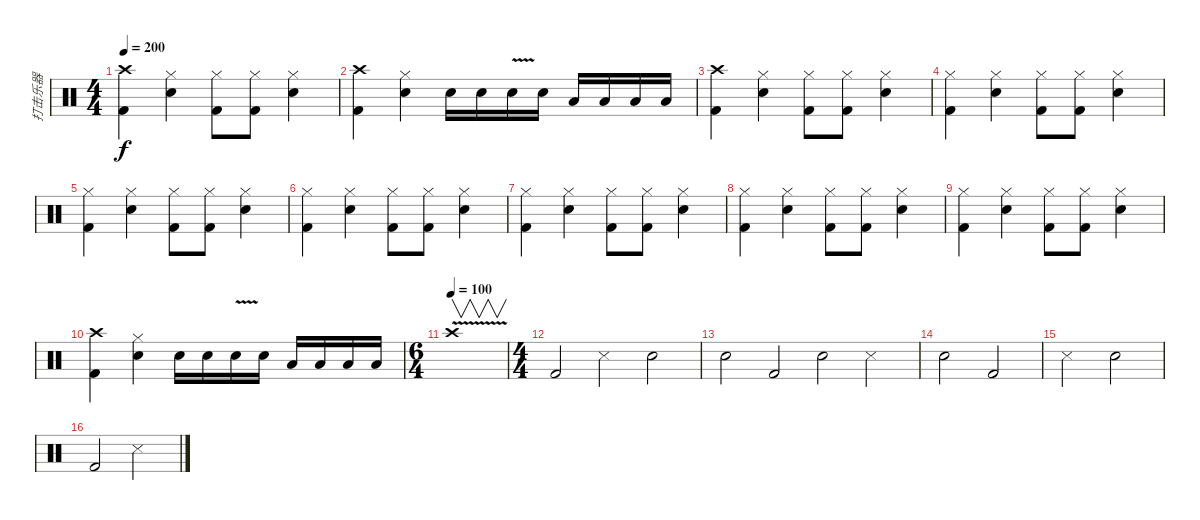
\track ("打击乐器" "打击乐器") {instrument percussion}
\staff {score}
\articulation defaults
\ts (4 4)
\tempo 200
\clef neutral
\ks c
("Crash high (hit)" "Kick (hit) 2").4{dy f} ("Hi-Hat (closed)" "Snare (hit) 2").4 ("Hi-Hat (closed)" "Kick (hit) 2").8 ("Hi-Hat (closed)" "Kick (hit) 2").8 ("Hi-Hat (closed)" "Snare (hit) 2").4 |
("Crash high (hit)" "Kick (hit) 2").4 ("Hi-Hat (closed)" "Snare (hit) 2").4 "Snare (hit) 2".16 "Snare (hit) 2".16 "Snare (hit) 2"{v}.16 "Snare (hit) 2".16 "Low Floor Tom (hit)".16 "Low Floor Tom (hit)".16 "Low Tom (hit)".16 "Low Tom (hit)".16 |
("Crash high (hit)" "Kick (hit) 2").4 ("Hi-Hat (closed)" "Snare (hit) 2").4 ("Hi-Hat (closed)" "Kick (hit) 2").8 ("Hi-Hat (closed)" "Kick (hit) 2").8 ("Hi-Hat (closed)" "Snare (hit) 2").4 |
("Hi-Hat (closed)" "Kick (hit) 2").4 ("Hi-Hat (closed)" "Snare (hit) 2").4 ("Hi-Hat (closed)" "Kick (hit) 2").8 ("Hi-Hat (closed)" "Kick (hit) 2").8 ("Hi-Hat (closed)" "Snare (hit) 2").4 |
("Hi-Hat (closed)" "Kick (hit) 2").4 ("Hi-Hat (closed)" "Snare (hit) 2").4 ("Hi-Hat (closed)" "Kick (hit) 2").8 ("Hi-Hat (closed)" "Kick (hit) 2").8 ("Hi-Hat (closed)" "Snare (hit) 2").4 |
("Hi-Hat (closed)" "Kick (hit) 2").4 ("Hi-Hat (closed)" "Snare (hit) 2").4 ("Hi-Hat (closed)" "Kick (hit) 2").8 ("Hi-Hat (closed)" "Kick (hit) 2").8 ("Hi-Hat (closed)" "Snare (hit) 2").4 |
("Hi-Hat (closed)" "Kick (hit) 2").4 ("Hi-Hat (closed)" "Snare (hit) 2").4 ("Hi-Hat (closed)" "Kick (hit) 2").8 ("Hi-Hat (closed)" "Kick (hit) 2").8 ("Hi-Hat (closed)" "Snare (hit) 2").4 |
("Hi-Hat (closed)" "Kick (hit) 2").4 ("Hi-Hat (closed)" "Snare (hit) 2").4 ("Hi-Hat (closed)" "Kick (hit) 2").8 ("Hi-Hat (closed)" "Kick (hit) 2").8 ("Hi-Hat (closed)" "Snare (hit) 2").4 |
("Hi-Hat (closed)" "Kick (hit) 2").4 ("Hi-Hat (closed)" "Snare (hit) 2").4 ("Hi-Hat (closed)" "Kick (hit) 2").8 ("Hi-Hat (closed)" "Kick (hit) 2").8 ("Hi-Hat (closed)" "Snare (hit) 2").4 |
("Crash high (hit)" "Kick (hit) 2").4 ("Hi-Hat (closed)" "Snare (hit) 2").4 "Snare (hit) 2".16 "Snare (hit) 2".16 "Snare (hit) 2"{v}.16 "Snare (hit) 2".16 "Low Floor Tom (hit)".16 "Low Floor Tom (hit)".16 "Low Tom (hit)".16 "Low Tom (hit)".16 |
\ts (6 4)
\tempo (100)
"Crash high (hit)"{v}.1{v} |
\ts (4 4)
"Kick (hit) 2".2 "Snare (side stick) 3".2 "Snare (hit) 2".2 |
"Snare (hit) 2".2 "Kick (hit) 2".2 "Snare (hit) 2".2 "Snare (side stick) 3".2 |
"Snare (hit) 2".2 "Kick (hit) 2".2 |
"Snare (side stick) 3".2 "Snare (hit) 2".2 |
"Kick (hit) 2".2 "Snare (side stick) 3".2
